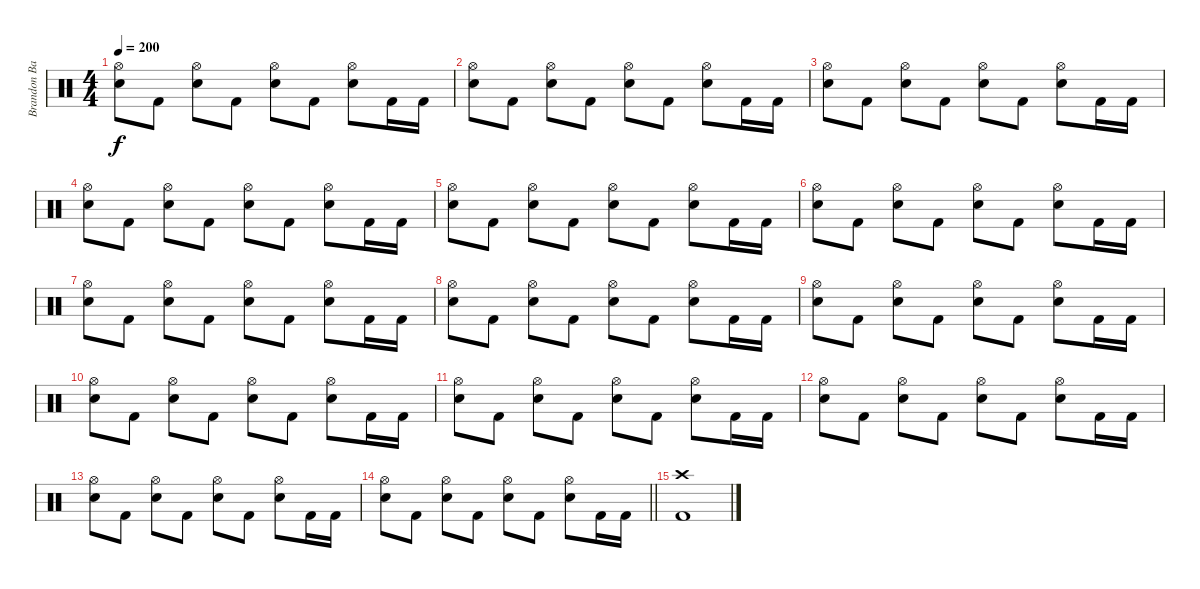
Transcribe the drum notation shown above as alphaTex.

\track ("Brandon Barnes - Drums" "Brandon Ba") {instrument percussion}
\staff {score}
\articulation defaults
\ts (4 4)
\tempo 200
\clef neutral
\ks c
("Snare (hit) 2" "Hi-Hat (open)").8{dy f} "Kick (hit) 2".8 ("Snare (hit) 2" "Hi-Hat (open)").8 "Kick (hit) 2".8 ("Snare (hit) 2" "Hi-Hat (open)").8 "Kick (hit) 2".8 ("Snare (hit) 2" "Hi-Hat (open)").8 "Kick (hit) 2".16 "Kick (hit) 2".16 |
("Snare (hit) 2" "Hi-Hat (open)").8 "Kick (hit) 2".8 ("Snare (hit) 2" "Hi-Hat (open)").8 "Kick (hit) 2".8 ("Snare (hit) 2" "Hi-Hat (open)").8 "Kick (hit) 2".8 ("Snare (hit) 2" "Hi-Hat (open)").8 "Kick (hit) 2".16 "Kick (hit) 2".16 |
("Snare (hit) 2" "Hi-Hat (open)").8 "Kick (hit) 2".8 ("Snare (hit) 2" "Hi-Hat (open)").8 "Kick (hit) 2".8 ("Snare (hit) 2" "Hi-Hat (open)").8 "Kick (hit) 2".8 ("Snare (hit) 2" "Hi-Hat (open)").8 "Kick (hit) 2".16 "Kick (hit) 2".16 |
("Snare (hit) 2" "Hi-Hat (open)").8 "Kick (hit) 2".8 ("Snare (hit) 2" "Hi-Hat (open)").8 "Kick (hit) 2".8 ("Snare (hit) 2" "Hi-Hat (open)").8 "Kick (hit) 2".8 ("Snare (hit) 2" "Hi-Hat (open)").8 "Kick (hit) 2".16 "Kick (hit) 2".16 |
("Snare (hit) 2" "Hi-Hat (open)").8 "Kick (hit) 2".8 ("Snare (hit) 2" "Hi-Hat (open)").8 "Kick (hit) 2".8 ("Snare (hit) 2" "Hi-Hat (open)").8 "Kick (hit) 2".8 ("Snare (hit) 2" "Hi-Hat (open)").8 "Kick (hit) 2".16 "Kick (hit) 2".16 |
("Snare (hit) 2" "Hi-Hat (open)").8 "Kick (hit) 2".8 ("Snare (hit) 2" "Hi-Hat (open)").8 "Kick (hit) 2".8 ("Snare (hit) 2" "Hi-Hat (open)").8 "Kick (hit) 2".8 ("Snare (hit) 2" "Hi-Hat (open)").8 "Kick (hit) 2".16 "Kick (hit) 2".16 |
("Snare (hit) 2" "Hi-Hat (open)").8 "Kick (hit) 2".8 ("Snare (hit) 2" "Hi-Hat (open)").8 "Kick (hit) 2".8 ("Snare (hit) 2" "Hi-Hat (open)").8 "Kick (hit) 2".8 ("Snare (hit) 2" "Hi-Hat (open)").8 "Kick (hit) 2".16 "Kick (hit) 2".16 |
("Snare (hit) 2" "Hi-Hat (open)").8 "Kick (hit) 2".8 ("Snare (hit) 2" "Hi-Hat (open)").8 "Kick (hit) 2".8 ("Snare (hit) 2" "Hi-Hat (open)").8 "Kick (hit) 2".8 ("Snare (hit) 2" "Hi-Hat (open)").8 "Kick (hit) 2".16 "Kick (hit) 2".16 |
("Snare (hit) 2" "Hi-Hat (open)").8 "Kick (hit) 2".8 ("Snare (hit) 2" "Hi-Hat (open)").8 "Kick (hit) 2".8 ("Snare (hit) 2" "Hi-Hat (open)").8 "Kick (hit) 2".8 ("Snare (hit) 2" "Hi-Hat (open)").8 "Kick (hit) 2".16 "Kick (hit) 2".16 |
("Snare (hit) 2" "Hi-Hat (open)").8 "Kick (hit) 2".8 ("Snare (hit) 2" "Hi-Hat (open)").8 "Kick (hit) 2".8 ("Snare (hit) 2" "Hi-Hat (open)").8 "Kick (hit) 2".8 ("Snare (hit) 2" "Hi-Hat (open)").8 "Kick (hit) 2".16 "Kick (hit) 2".16 |
("Snare (hit) 2" "Hi-Hat (open)").8 "Kick (hit) 2".8 ("Snare (hit) 2" "Hi-Hat (open)").8 "Kick (hit) 2".8 ("Snare (hit) 2" "Hi-Hat (open)").8 "Kick (hit) 2".8 ("Snare (hit) 2" "Hi-Hat (open)").8 "Kick (hit) 2".16 "Kick (hit) 2".16 |
("Snare (hit) 2" "Hi-Hat (open)").8 "Kick (hit) 2".8 ("Snare (hit) 2" "Hi-Hat (open)").8 "Kick (hit) 2".8 ("Snare (hit) 2" "Hi-Hat (open)").8 "Kick (hit) 2".8 ("Snare (hit) 2" "Hi-Hat (open)").8 "Kick (hit) 2".16 "Kick (hit) 2".16 |
("Snare (hit) 2" "Hi-Hat (open)").8 "Kick (hit) 2".8 ("Snare (hit) 2" "Hi-Hat (open)").8 "Kick (hit) 2".8 ("Snare (hit) 2" "Hi-Hat (open)").8 "Kick (hit) 2".8 ("Snare (hit) 2" "Hi-Hat (open)").8 "Kick (hit) 2".16 "Kick (hit) 2".16 |
\barLineRight lightlight
("Snare (hit) 2" "Hi-Hat (open)").8 "Kick (hit) 2".8 ("Snare (hit) 2" "Hi-Hat (open)").8 "Kick (hit) 2".8 ("Snare (hit) 2" "Hi-Hat (open)").8 "Kick (hit) 2".8 ("Snare (hit) 2" "Hi-Hat (open)").8 "Kick (hit) 2".16 "Kick (hit) 2".16 |
("Kick (hit) 2" "Crash high (hit)").1
